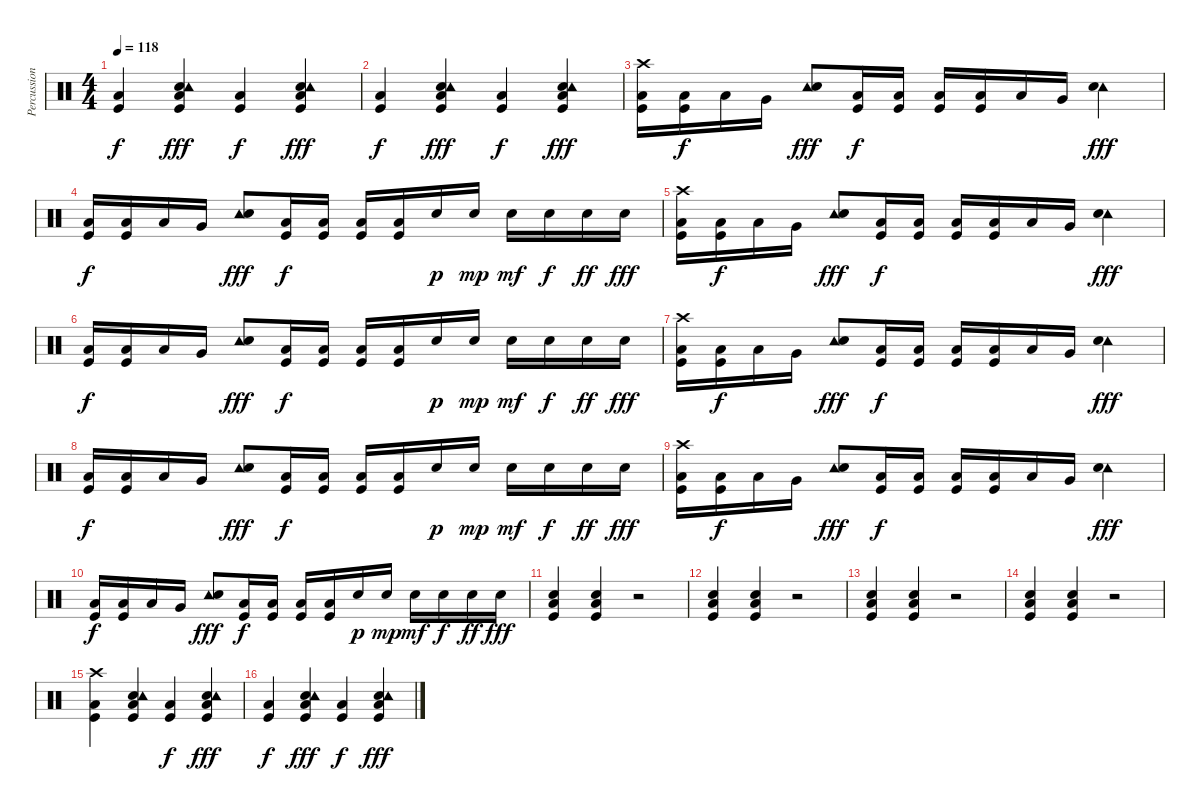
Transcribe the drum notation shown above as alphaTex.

\track ("Percussion" "Percussion") {instrument percussion}
\staff {score}
\articulation defaults
\ts (4 4)
\tempo 118
\clef neutral
\ks c
("Kick (hit)" "Low Floor Tom (hit)").4{dy f} ("Snare (hit) 2" "Tambourine (hit)" "Kick (hit)" "Low Floor Tom (hit)").4{dy fff} ("Kick (hit)" "Low Floor Tom (hit)").4{dy f} ("Snare (hit) 2" "Tambourine (hit)" "Kick (hit)" "Low Floor Tom (hit)").4{dy fff} |
("Kick (hit)" "Low Floor Tom (hit)").4{dy f} ("Snare (hit) 2" "Tambourine (hit)" "Kick (hit)" "Low Floor Tom (hit)").4{dy fff} ("Kick (hit)" "Low Floor Tom (hit)").4{dy f} ("Snare (hit) 2" "Tambourine (hit)" "Kick (hit)" "Low Floor Tom (hit)").4{dy fff} |
("Crash high (hit)" "Low Floor Tom (hit)" "Kick (hit)").16 ("Low Floor Tom (hit)" "Kick (hit)").16{dy f} "Low Tom (hit)".16 "Very Low Tom (hit)".16 ("Tambourine (hit)" "Snare (hit) 2").8{dy fff} ("Low Floor Tom (hit)" "Kick (hit)").16{dy f} ("Low Floor Tom (hit)" "Kick (hit)").16 ("Low Floor Tom (hit)" "Kick (hit)").16 ("Low Floor Tom (hit)" "Kick (hit)").16 "Low Tom (hit)".16 "Very Low Tom (hit)".16 ("Tambourine (hit)" "Snare (hit) 2").4{dy fff} |
("Low Floor Tom (hit)" "Kick (hit)").16{dy f} ("Low Floor Tom (hit)" "Kick (hit)").16 "Low Tom (hit)".16 "Very Low Tom (hit)".16 ("Tambourine (hit)" "Snare (hit) 2").8{dy fff} ("Low Floor Tom (hit)" "Kick (hit)").16{dy f} ("Low Floor Tom (hit)" "Kick (hit)").16 ("Low Floor Tom (hit)" "Kick (hit)").16 ("Low Floor Tom (hit)" "Kick (hit)").16 "Snare (hit) 2".16{dy p} "Snare (hit) 2".16{dy mp} "Snare (hit) 2".16{dy mf} "Snare (hit) 2".16{dy f} "Snare (hit) 2".16{dy ff} "Snare (hit) 2".16{dy fff} |
("Crash high (hit)" "Low Floor Tom (hit)" "Kick (hit)").16 ("Low Floor Tom (hit)" "Kick (hit)").16{dy f} "Low Tom (hit)".16 "Very Low Tom (hit)".16 ("Tambourine (hit)" "Snare (hit) 2").8{dy fff} ("Low Floor Tom (hit)" "Kick (hit)").16{dy f} ("Low Floor Tom (hit)" "Kick (hit)").16 ("Low Floor Tom (hit)" "Kick (hit)").16 ("Low Floor Tom (hit)" "Kick (hit)").16 "Low Tom (hit)".16 "Very Low Tom (hit)".16 ("Tambourine (hit)" "Snare (hit) 2").4{dy fff} |
("Low Floor Tom (hit)" "Kick (hit)").16{dy f} ("Low Floor Tom (hit)" "Kick (hit)").16 "Low Tom (hit)".16 "Very Low Tom (hit)".16 ("Tambourine (hit)" "Snare (hit) 2").8{dy fff} ("Low Floor Tom (hit)" "Kick (hit)").16{dy f} ("Low Floor Tom (hit)" "Kick (hit)").16 ("Low Floor Tom (hit)" "Kick (hit)").16 ("Low Floor Tom (hit)" "Kick (hit)").16 "Snare (hit) 2".16{dy p} "Snare (hit) 2".16{dy mp} "Snare (hit) 2".16{dy mf} "Snare (hit) 2".16{dy f} "Snare (hit) 2".16{dy ff} "Snare (hit) 2".16{dy fff} |
("Crash high (hit)" "Low Floor Tom (hit)" "Kick (hit)").16 ("Low Floor Tom (hit)" "Kick (hit)").16{dy f} "Low Tom (hit)".16 "Very Low Tom (hit)".16 ("Tambourine (hit)" "Snare (hit) 2").8{dy fff} ("Low Floor Tom (hit)" "Kick (hit)").16{dy f} ("Low Floor Tom (hit)" "Kick (hit)").16 ("Low Floor Tom (hit)" "Kick (hit)").16 ("Low Floor Tom (hit)" "Kick (hit)").16 "Low Tom (hit)".16 "Very Low Tom (hit)".16 ("Tambourine (hit)" "Snare (hit) 2").4{dy fff} |
("Low Floor Tom (hit)" "Kick (hit)").16{dy f} ("Low Floor Tom (hit)" "Kick (hit)").16 "Low Tom (hit)".16 "Very Low Tom (hit)".16 ("Tambourine (hit)" "Snare (hit) 2").8{dy fff} ("Low Floor Tom (hit)" "Kick (hit)").16{dy f} ("Low Floor Tom (hit)" "Kick (hit)").16 ("Low Floor Tom (hit)" "Kick (hit)").16 ("Low Floor Tom (hit)" "Kick (hit)").16 "Snare (hit) 2".16{dy p} "Snare (hit) 2".16{dy mp} "Snare (hit) 2".16{dy mf} "Snare (hit) 2".16{dy f} "Snare (hit) 2".16{dy ff} "Snare (hit) 2".16{dy fff} |
("Crash high (hit)" "Low Floor Tom (hit)" "Kick (hit)").16 ("Low Floor Tom (hit)" "Kick (hit)").16{dy f} "Low Tom (hit)".16 "Very Low Tom (hit)".16 ("Tambourine (hit)" "Snare (hit) 2").8{dy fff} ("Low Floor Tom (hit)" "Kick (hit)").16{dy f} ("Low Floor Tom (hit)" "Kick (hit)").16 ("Low Floor Tom (hit)" "Kick (hit)").16 ("Low Floor Tom (hit)" "Kick (hit)").16 "Low Tom (hit)".16 "Very Low Tom (hit)".16 ("Tambourine (hit)" "Snare (hit) 2").4{dy fff} |
("Low Floor Tom (hit)" "Kick (hit)").16{dy f} ("Low Floor Tom (hit)" "Kick (hit)").16 "Low Tom (hit)".16 "Very Low Tom (hit)".16 ("Tambourine (hit)" "Snare (hit) 2").8{dy fff} ("Low Floor Tom (hit)" "Kick (hit)").16{dy f} ("Low Floor Tom (hit)" "Kick (hit)").16 ("Low Floor Tom (hit)" "Kick (hit)").16 ("Low Floor Tom (hit)" "Kick (hit)").16 "Snare (hit) 2".16{dy p} "Snare (hit) 2".16{dy mp} "Snare (hit) 2".16{dy mf} "Snare (hit) 2".16{dy f} "Snare (hit) 2".16{dy ff} "Snare (hit) 2".16{dy fff} |
("Low Floor Tom (hit)" "Kick (hit)" "Snare (hit) 2").4 ("Low Floor Tom (hit)" "Kick (hit)" "Snare (hit) 2").4 r.2 |
("Low Floor Tom (hit)" "Kick (hit)" "Snare (hit) 2").4 ("Low Floor Tom (hit)" "Kick (hit)" "Snare (hit) 2").4 r.2 |
("Low Floor Tom (hit)" "Kick (hit)" "Snare (hit) 2").4 ("Low Floor Tom (hit)" "Kick (hit)" "Snare (hit) 2").4 r.2 |
("Low Floor Tom (hit)" "Kick (hit)" "Snare (hit) 2").4 ("Low Floor Tom (hit)" "Kick (hit)" "Snare (hit) 2").4 r.2 |
("Crash high (hit)" "Kick (hit)" "Low Floor Tom (hit)").4 ("Snare (hit) 2" "Tambourine (hit)" "Kick (hit)" "Low Floor Tom (hit)").4 ("Kick (hit)" "Low Floor Tom (hit)").4{dy f} ("Snare (hit) 2" "Tambourine (hit)" "Kick (hit)" "Low Floor Tom (hit)").4{dy fff} |
("Kick (hit)" "Low Floor Tom (hit)").4{dy f} ("Snare (hit) 2" "Tambourine (hit)" "Kick (hit)" "Low Floor Tom (hit)").4{dy fff} ("Kick (hit)" "Low Floor Tom (hit)").4{dy f} ("Snare (hit) 2" "Tambourine (hit)" "Kick (hit)" "Low Floor Tom (hit)").4{dy fff}
